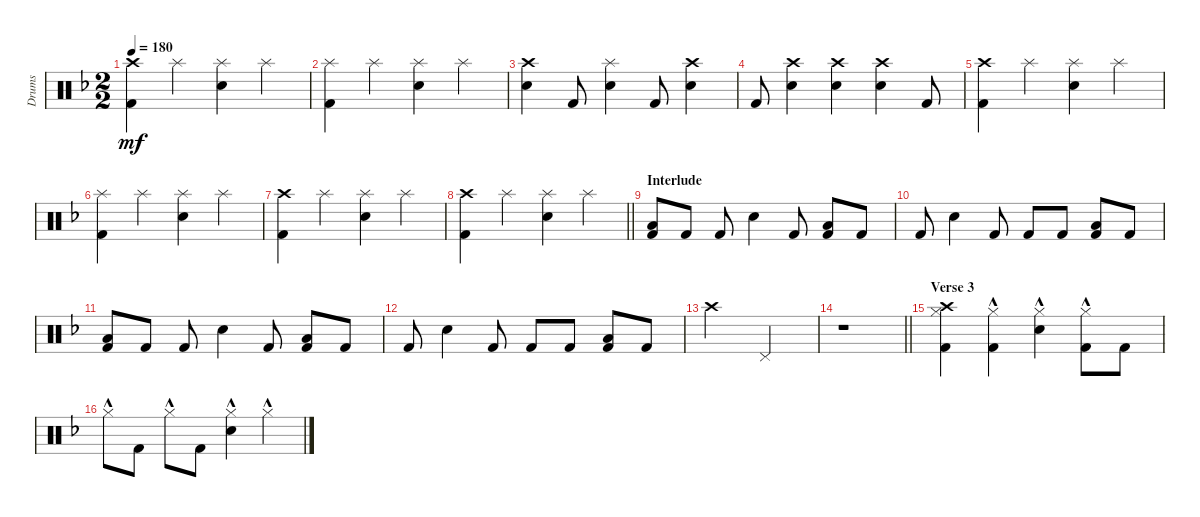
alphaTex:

\track ("Drums" "Drums") {instrument percussion}
\staff {score}
\articulation defaults
\ts (2 2)
\tempo 180
\clef neutral
\ks dminor
("Crash high (hit)" "Kick (hit) 2").4{dy mf} "Splash (hit)".4 ("Splash (hit)" "Snare (hit) 2").4 "Splash (hit)".4 |
("Splash (hit)" "Kick (hit) 2").4 "Splash (hit)".4 ("Splash (hit)" "Snare (hit) 2").4 "Splash (hit)".4 |
("Crash high (hit)" "Snare (hit) 2").4 "Kick (hit) 2".8 ("Splash (hit)" "Snare (hit) 2").4 "Kick (hit) 2".8 ("Snare (hit) 2" "Crash high (hit)").4 |
"Kick (hit) 2".8 ("Crash high (hit)" "Snare (hit) 2").4 ("Crash high (hit)" "Snare (hit) 2").4 ("Crash high (hit)" "Snare (hit) 2").4 "Kick (hit) 2".8 |
("Crash high (hit)" "Kick (hit) 2").4 "Splash (hit)".4 ("Splash (hit)" "Snare (hit) 2").4 "Splash (hit)".4 |
("Splash (hit)" "Kick (hit) 2").4 "Splash (hit)".4 ("Splash (hit)" "Snare (hit) 2").4 "Splash (hit)".4 |
("Crash high (hit)" "Kick (hit) 2").4 "Splash (hit)".4 ("Splash (hit)" "Snare (hit) 2").4 "Splash (hit)".4 |
\barLineRight lightlight
("Crash high (hit)" "Kick (hit) 2").4 "Splash (hit)".4 ("Splash (hit)" "Snare (hit) 2").4 "Splash (hit)".4 |
\section ("" "Interlude")
("Low Floor Tom (hit)" "Kick (hit) 2").8 "Kick (hit) 2".8 "Kick (hit) 2".8 "Snare (hit) 2".4 "Kick (hit) 2".8 ("Low Floor Tom (hit)" "Kick (hit) 2").8 "Kick (hit) 2".8 |
"Kick (hit) 2".8 "Snare (hit) 2".4 "Kick (hit) 2".8 "Kick (hit) 2".8 "Kick (hit) 2".8 ("Kick (hit) 2" "Low Floor Tom (hit)").8 "Kick (hit) 2".8 |
("Low Floor Tom (hit)" "Kick (hit) 2").8 "Kick (hit) 2".8 "Kick (hit) 2".8 "Snare (hit) 2".4 "Kick (hit) 2".8 ("Low Floor Tom (hit)" "Kick (hit) 2").8 "Kick (hit) 2".8 |
"Kick (hit) 2".8 "Snare (hit) 2".4 "Kick (hit) 2".8 "Kick (hit) 2".8 "Kick (hit) 2".8 ("Kick (hit) 2" "Low Floor Tom (hit)").8 "Kick (hit) 2".8 |
"Crash high (hit)".2 "Pedal Hi-Hat (hit)".2 |
\barLineRight lightlight
r.1 |
\section ("" "Verse 3")
("Hi-Hat (closed)" "Kick (hit) 2" "Crash high (hit)").4 ("Hi-Hat (closed)"{hac} "Kick (hit) 2").4 ("Hi-Hat (closed)"{hac} "Snare (hit) 2").4 ("Hi-Hat (closed)"{hac} "Kick (hit) 2").8 "Kick (hit) 2".8 |
"Hi-Hat (closed)"{hac}.8 "Kick (hit) 2".8 "Hi-Hat (closed)"{hac}.8 "Kick (hit) 2".8 ("Hi-Hat (closed)"{hac} "Snare (hit) 2").4 "Hi-Hat (closed)"{hac}.4
